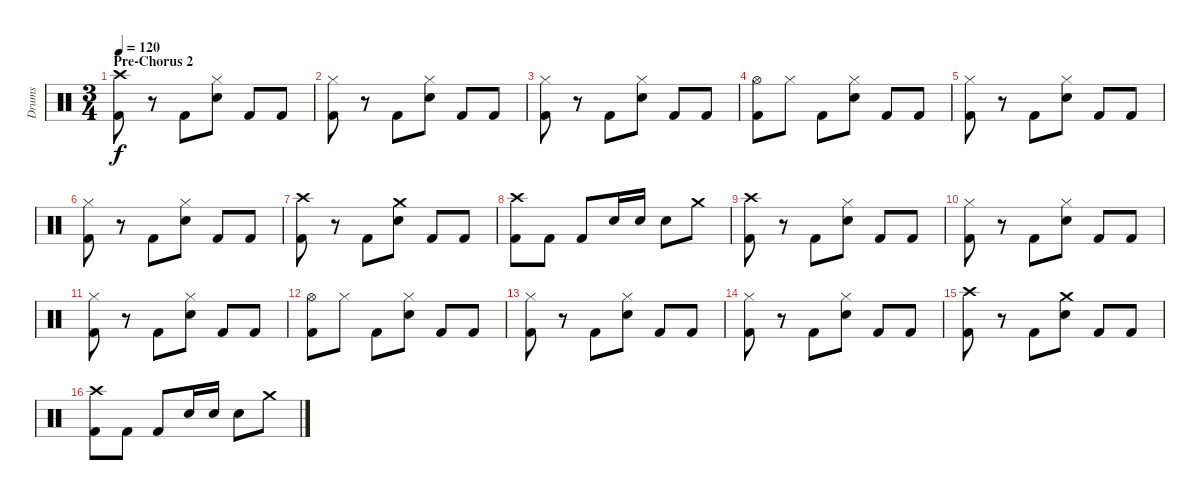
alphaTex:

\track ("Drums" "Drums") {instrument percussion}
\staff {score}
\articulation defaults
\ts (3 4)
\section ("" "Pre-Chorus 2")
\tempo 120
\clef neutral
\ks c
("Crash high (hit)" "Kick (hit) 2").8{dy f} r.8 "Kick (hit) 2".8 ("Hi-Hat (closed)" "Snare (hit) 2").8 "Kick (hit) 2".8 "Kick (hit) 2".8 |
("Hi-Hat (closed)" "Kick (hit) 2").8 r.8 "Kick (hit) 2".8 ("Hi-Hat (closed)" "Snare (hit) 2").8 "Kick (hit) 2".8 "Kick (hit) 2".8 |
("Hi-Hat (closed)" "Kick (hit) 2").8 r.8 "Kick (hit) 2".8 ("Hi-Hat (closed)" "Snare (hit) 2").8 "Kick (hit) 2".8 "Kick (hit) 2".8 |
("Hi-Hat (open)" "Kick (hit) 2").8 "Hi-Hat (closed)".8 "Kick (hit) 2".8 ("Hi-Hat (closed)" "Snare (hit) 2").8 "Kick (hit) 2".8 "Kick (hit) 2".8 |
("Hi-Hat (closed)" "Kick (hit) 2").8 r.8 "Kick (hit) 2".8 ("Hi-Hat (closed)" "Snare (hit) 2").8 "Kick (hit) 2".8 "Kick (hit) 2".8 |
("Hi-Hat (closed)" "Kick (hit) 2").8 r.8 "Kick (hit) 2".8 ("Hi-Hat (closed)" "Snare (hit) 2").8 "Kick (hit) 2".8 "Kick (hit) 2".8 |
("Crash high (hit)" "Kick (hit) 2").8 r.8 "Kick (hit) 2".8 ("Crash medium (hit)" "Snare (hit) 2").8 "Kick (hit) 2".8 "Kick (hit) 2".8 |
("Crash high (hit)" "Kick (hit) 2").8 "Kick (hit) 2".8 "Kick (hit) 2".8 "Snare (hit) 2".16 "Snare (hit) 2".16 "Snare (hit) 2".8 "Crash medium (hit)".8 |
("Crash high (hit)" "Kick (hit) 2").8 r.8 "Kick (hit) 2".8 ("Hi-Hat (closed)" "Snare (hit) 2").8 "Kick (hit) 2".8 "Kick (hit) 2".8 |
("Hi-Hat (closed)" "Kick (hit) 2").8 r.8 "Kick (hit) 2".8 ("Hi-Hat (closed)" "Snare (hit) 2").8 "Kick (hit) 2".8 "Kick (hit) 2".8 |
("Hi-Hat (closed)" "Kick (hit) 2").8 r.8 "Kick (hit) 2".8 ("Hi-Hat (closed)" "Snare (hit) 2").8 "Kick (hit) 2".8 "Kick (hit) 2".8 |
("Hi-Hat (open)" "Kick (hit) 2").8 "Hi-Hat (closed)".8 "Kick (hit) 2".8 ("Hi-Hat (closed)" "Snare (hit) 2").8 "Kick (hit) 2".8 "Kick (hit) 2".8 |
("Hi-Hat (closed)" "Kick (hit) 2").8 r.8 "Kick (hit) 2".8 ("Hi-Hat (closed)" "Snare (hit) 2").8 "Kick (hit) 2".8 "Kick (hit) 2".8 |
("Hi-Hat (closed)" "Kick (hit) 2").8 r.8 "Kick (hit) 2".8 ("Hi-Hat (closed)" "Snare (hit) 2").8 "Kick (hit) 2".8 "Kick (hit) 2".8 |
("Crash high (hit)" "Kick (hit) 2").8 r.8 "Kick (hit) 2".8 ("Crash medium (hit)" "Snare (hit) 2").8 "Kick (hit) 2".8 "Kick (hit) 2".8 |
("Crash high (hit)" "Kick (hit) 2").8 "Kick (hit) 2".8 "Kick (hit) 2".8 "Snare (hit) 2".16 "Snare (hit) 2".16 "Snare (hit) 2".8 "Crash medium (hit)".8
